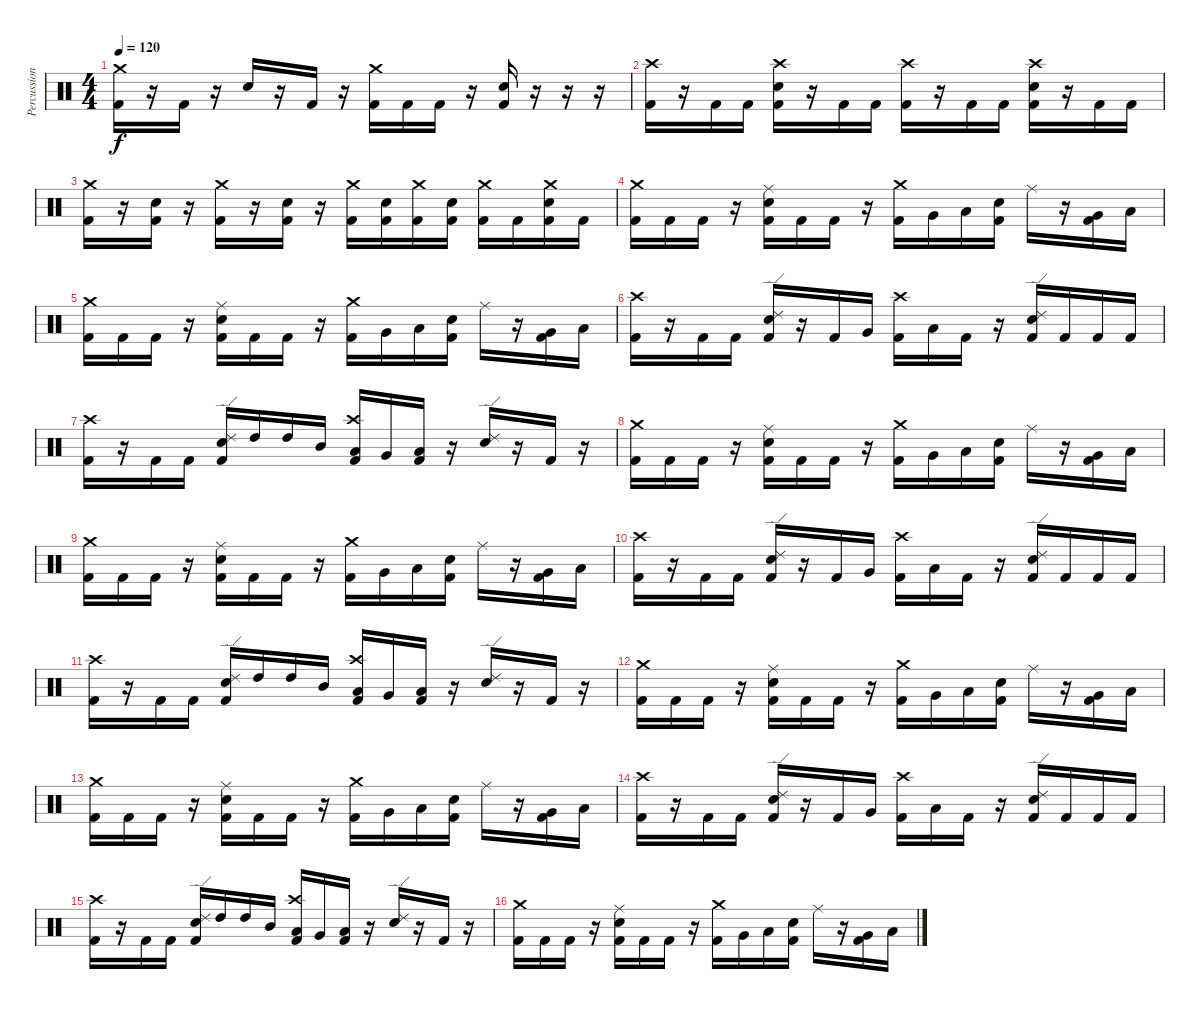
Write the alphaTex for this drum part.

\track ("Percussion" "Percussion") {instrument percussion}
\staff {score}
\articulation defaults
\ts (4 4)
\tempo 120
\clef neutral
\ks c
("Crash medium (hit)" "Kick (hit) 2").16{dy f} r.16 "Kick (hit) 2".16 r.16 "Electric Snare (hit)".16 r.16 "Kick (hit) 2".16 r.16 ("Crash medium (hit)" "Kick (hit) 2").16 "Kick (hit) 2".16 "Kick (hit) 2".16 r.16 ("Electric Snare (hit)" "Kick (hit) 2").16 r.16 r.16 r.16 |
("Crash high (hit)" "Kick (hit) 2").16 r.16 "Kick (hit) 2".16 "Kick (hit) 2".16 ("Crash high (hit)" "Electric Snare (hit)" "Kick (hit) 2").16 r.16 "Kick (hit) 2".16 "Kick (hit) 2".16 ("Crash high (hit)" "Kick (hit) 2").16 r.16 "Kick (hit) 2".16 "Kick (hit) 2".16 ("Crash high (hit)" "Electric Snare (hit)" "Kick (hit) 2").16 r.16 "Kick (hit) 2".16 "Kick (hit) 2".16 |
("Crash medium (hit)" "Kick (hit) 2").16 r.16 ("Electric Snare (hit)" "Kick (hit) 2").16 r.16 ("Crash medium (hit)" "Kick (hit) 2").16 r.16 ("Electric Snare (hit)" "Kick (hit) 2").16 r.16 ("Crash medium (hit)" "Kick (hit) 2").16 ("Electric Snare (hit)" "Kick (hit) 2").16 ("Crash medium (hit)" "Kick (hit) 2").16 ("Electric Snare (hit)" "Kick (hit) 2").16 ("Crash medium (hit)" "Kick (hit) 2").16 "Kick (hit) 2".16 ("Crash medium (hit)" "Electric Snare (hit)" "Kick (hit) 2").16 "Kick (hit) 2".16 |
("Crash medium (hit)" "Kick (hit) 2").16 "Kick (hit) 2".16 "Kick (hit) 2".16 r.16 ("Ride (middle)" "Electric Snare (hit)" "Kick (hit) 2").16 "Kick (hit) 2".16 "Kick (hit) 2".16 r.16 ("Crash medium (hit)" "Kick (hit) 2").16 "Very Low Tom (hit)".16 "Low Tom (hit)".16 ("Electric Snare (hit)" "Kick (hit) 2").16 "Ride (middle)".16 r.16 ("Very Low Tom (hit)" "Kick (hit) 2").16 "Low Floor Tom (hit)".16 |
("Crash medium (hit)" "Kick (hit) 2").16 "Kick (hit) 2".16 "Kick (hit) 2".16 r.16 ("Ride (middle)" "Electric Snare (hit)" "Kick (hit) 2").16 "Kick (hit) 2".16 "Kick (hit) 2".16 r.16 ("Crash medium (hit)" "Kick (hit) 2").16 "Very Low Tom (hit)".16 "Low Tom (hit)".16 ("Electric Snare (hit)" "Kick (hit) 2").16 "Ride (middle)".16 r.16 ("Very Low Tom (hit)" "Kick (hit) 2").16 "Low Floor Tom (hit)".16 |
("Crash high (hit)" "Kick (hit) 2").16 r.16 "Kick (hit) 2".16 "Kick (hit) 2".16 ("Ride (edge) 2" "Electric Snare (hit)" "Kick (hit) 2").16 r.16 "Kick (hit) 2".16 "Very Low Tom (hit)".16 ("Crash high (hit)" "Kick (hit) 2").16 "Low Floor Tom (hit)".16 "Kick (hit) 2".16 r.16 ("Ride (edge) 2" "Electric Snare (hit)" "Kick (hit) 2").16 "Kick (hit) 2".16 "Kick (hit) 2".16 "Kick (hit) 2".16 |
("Crash high (hit)" "Kick (hit) 2").16 r.16 "Kick (hit) 2".16 "Kick (hit) 2".16 ("Ride (edge) 2" "Electric Snare (hit)" "Kick (hit) 2").16 "High Tom (hit)".16 "High Tom (hit)".16 "Mid Tom (hit)".16 ("Crash high (hit)" "Low Tom (hit)" "Kick (hit) 2").16 "Very Low Tom (hit)".16 ("Low Floor Tom (hit)" "Kick (hit) 2").16 r.16 ("Ride (edge) 2" "Electric Snare (hit)").16 r.16 "Kick (hit) 2".16 r.16 |
("Crash medium (hit)" "Kick (hit) 2").16 "Kick (hit) 2".16 "Kick (hit) 2".16 r.16 ("Ride (middle)" "Electric Snare (hit)" "Kick (hit) 2").16 "Kick (hit) 2".16 "Kick (hit) 2".16 r.16 ("Crash medium (hit)" "Kick (hit) 2").16 "Very Low Tom (hit)".16 "Low Tom (hit)".16 ("Electric Snare (hit)" "Kick (hit) 2").16 "Ride (middle)".16 r.16 ("Very Low Tom (hit)" "Kick (hit) 2").16 "Low Floor Tom (hit)".16 |
("Crash medium (hit)" "Kick (hit) 2").16 "Kick (hit) 2".16 "Kick (hit) 2".16 r.16 ("Ride (middle)" "Electric Snare (hit)" "Kick (hit) 2").16 "Kick (hit) 2".16 "Kick (hit) 2".16 r.16 ("Crash medium (hit)" "Kick (hit) 2").16 "Very Low Tom (hit)".16 "Low Tom (hit)".16 ("Electric Snare (hit)" "Kick (hit) 2").16 "Ride (middle)".16 r.16 ("Very Low Tom (hit)" "Kick (hit) 2").16 "Low Floor Tom (hit)".16 |
("Crash high (hit)" "Kick (hit) 2").16 r.16 "Kick (hit) 2".16 "Kick (hit) 2".16 ("Ride (edge) 2" "Electric Snare (hit)" "Kick (hit) 2").16 r.16 "Kick (hit) 2".16 "Very Low Tom (hit)".16 ("Crash high (hit)" "Kick (hit) 2").16 "Low Floor Tom (hit)".16 "Kick (hit) 2".16 r.16 ("Ride (edge) 2" "Electric Snare (hit)" "Kick (hit) 2").16 "Kick (hit) 2".16 "Kick (hit) 2".16 "Kick (hit) 2".16 |
("Crash high (hit)" "Kick (hit) 2").16 r.16 "Kick (hit) 2".16 "Kick (hit) 2".16 ("Ride (edge) 2" "Electric Snare (hit)" "Kick (hit) 2").16 "High Tom (hit)".16 "High Tom (hit)".16 "Mid Tom (hit)".16 ("Crash high (hit)" "Low Tom (hit)" "Kick (hit) 2").16 "Very Low Tom (hit)".16 ("Low Floor Tom (hit)" "Kick (hit) 2").16 r.16 ("Ride (edge) 2" "Electric Snare (hit)").16 r.16 "Kick (hit) 2".16 r.16 |
("Crash medium (hit)" "Kick (hit) 2").16 "Kick (hit) 2".16 "Kick (hit) 2".16 r.16 ("Ride (middle)" "Electric Snare (hit)" "Kick (hit) 2").16 "Kick (hit) 2".16 "Kick (hit) 2".16 r.16 ("Crash medium (hit)" "Kick (hit) 2").16 "Very Low Tom (hit)".16 "Low Tom (hit)".16 ("Electric Snare (hit)" "Kick (hit) 2").16 "Ride (middle)".16 r.16 ("Very Low Tom (hit)" "Kick (hit) 2").16 "Low Floor Tom (hit)".16 |
("Crash medium (hit)" "Kick (hit) 2").16 "Kick (hit) 2".16 "Kick (hit) 2".16 r.16 ("Ride (middle)" "Electric Snare (hit)" "Kick (hit) 2").16 "Kick (hit) 2".16 "Kick (hit) 2".16 r.16 ("Crash medium (hit)" "Kick (hit) 2").16 "Very Low Tom (hit)".16 "Low Tom (hit)".16 ("Electric Snare (hit)" "Kick (hit) 2").16 "Ride (middle)".16 r.16 ("Very Low Tom (hit)" "Kick (hit) 2").16 "Low Floor Tom (hit)".16 |
("Crash high (hit)" "Kick (hit) 2").16 r.16 "Kick (hit) 2".16 "Kick (hit) 2".16 ("Ride (edge) 2" "Electric Snare (hit)" "Kick (hit) 2").16 r.16 "Kick (hit) 2".16 "Very Low Tom (hit)".16 ("Crash high (hit)" "Kick (hit) 2").16 "Low Floor Tom (hit)".16 "Kick (hit) 2".16 r.16 ("Ride (edge) 2" "Electric Snare (hit)" "Kick (hit) 2").16 "Kick (hit) 2".16 "Kick (hit) 2".16 "Kick (hit) 2".16 |
("Crash high (hit)" "Kick (hit) 2").16 r.16 "Kick (hit) 2".16 "Kick (hit) 2".16 ("Ride (edge) 2" "Electric Snare (hit)" "Kick (hit) 2").16 "High Tom (hit)".16 "High Tom (hit)".16 "Mid Tom (hit)".16 ("Crash high (hit)" "Low Tom (hit)" "Kick (hit) 2").16 "Very Low Tom (hit)".16 ("Low Floor Tom (hit)" "Kick (hit) 2").16 r.16 ("Ride (edge) 2" "Electric Snare (hit)").16 r.16 "Kick (hit) 2".16 r.16 |
("Crash medium (hit)" "Kick (hit) 2").16 "Kick (hit) 2".16 "Kick (hit) 2".16 r.16 ("Ride (middle)" "Electric Snare (hit)" "Kick (hit) 2").16 "Kick (hit) 2".16 "Kick (hit) 2".16 r.16 ("Crash medium (hit)" "Kick (hit) 2").16 "Very Low Tom (hit)".16 "Low Tom (hit)".16 ("Electric Snare (hit)" "Kick (hit) 2").16 "Ride (middle)".16 r.16 ("Very Low Tom (hit)" "Kick (hit) 2").16 "Low Floor Tom (hit)".16
